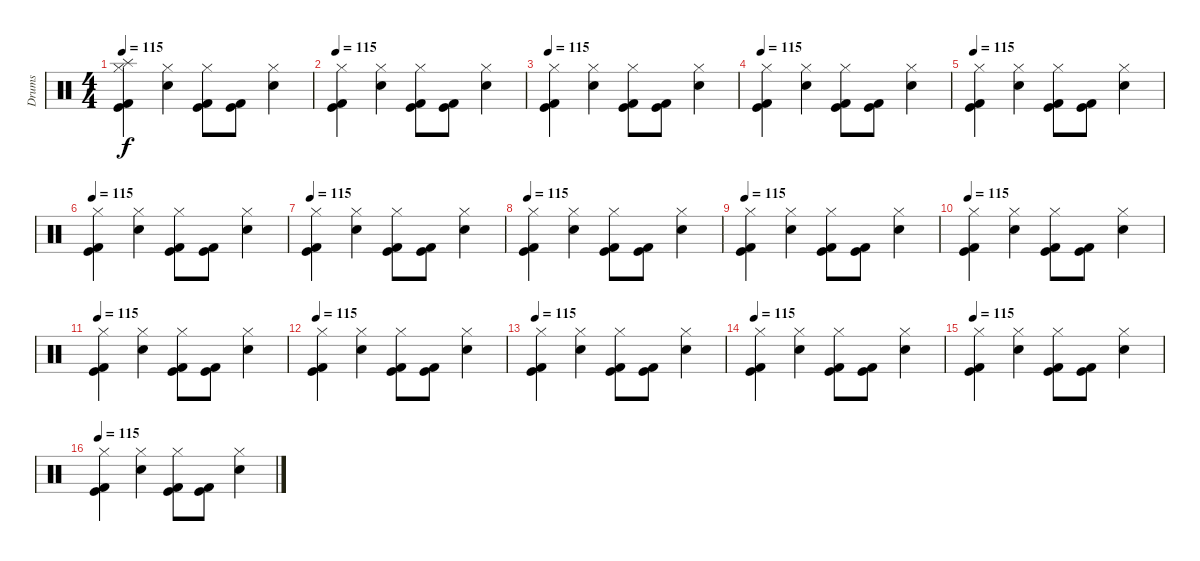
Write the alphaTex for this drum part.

\track ("Drums" "Drums") {instrument percussion}
\staff {score}
\articulation defaults
\ts (4 4)
\tempo 115
\clef neutral
\ks c
("Splash (hit)" "Kick (hit) 2" "Kick (hit)" "Hi-Hat (closed)").4{dy f} ("Hi-Hat (closed)" "Electric Snare (hit)").4 ("Kick (hit) 2" "Kick (hit)" "Hi-Hat (closed)").8 ("Kick (hit) 2" "Kick (hit)").8 ("Electric Snare (hit)" "Hi-Hat (closed)").4 |
\tempo 115
("Kick (hit) 2" "Kick (hit)" "Hi-Hat (closed)").4 ("Hi-Hat (closed)" "Electric Snare (hit)").4 ("Kick (hit) 2" "Kick (hit)" "Hi-Hat (closed)").8 ("Kick (hit) 2" "Kick (hit)").8 ("Electric Snare (hit)" "Hi-Hat (closed)").4 |
\tempo 115
("Kick (hit) 2" "Kick (hit)" "Hi-Hat (closed)").4 ("Hi-Hat (closed)" "Electric Snare (hit)").4 ("Kick (hit) 2" "Kick (hit)" "Hi-Hat (closed)").8 ("Kick (hit) 2" "Kick (hit)").8 ("Electric Snare (hit)" "Hi-Hat (closed)").4 |
\tempo 115
("Kick (hit) 2" "Kick (hit)" "Hi-Hat (closed)").4 ("Hi-Hat (closed)" "Electric Snare (hit)").4 ("Kick (hit) 2" "Kick (hit)" "Hi-Hat (closed)").8 ("Kick (hit) 2" "Kick (hit)").8 ("Electric Snare (hit)" "Hi-Hat (closed)").4 |
\tempo 115
("Kick (hit) 2" "Kick (hit)" "Hi-Hat (closed)").4 ("Hi-Hat (closed)" "Electric Snare (hit)").4 ("Kick (hit) 2" "Kick (hit)" "Hi-Hat (closed)").8 ("Kick (hit) 2" "Kick (hit)").8 ("Electric Snare (hit)" "Hi-Hat (closed)").4 |
\tempo 115
("Kick (hit) 2" "Kick (hit)" "Hi-Hat (closed)").4 ("Hi-Hat (closed)" "Electric Snare (hit)").4 ("Kick (hit) 2" "Kick (hit)" "Hi-Hat (closed)").8 ("Kick (hit) 2" "Kick (hit)").8 ("Electric Snare (hit)" "Hi-Hat (closed)").4 |
\tempo 115
("Kick (hit) 2" "Kick (hit)" "Hi-Hat (closed)").4 ("Hi-Hat (closed)" "Electric Snare (hit)").4 ("Kick (hit) 2" "Kick (hit)" "Hi-Hat (closed)").8 ("Kick (hit) 2" "Kick (hit)").8 ("Electric Snare (hit)" "Hi-Hat (closed)").4 |
\tempo 115
("Kick (hit) 2" "Kick (hit)" "Hi-Hat (closed)").4 ("Hi-Hat (closed)" "Electric Snare (hit)").4 ("Kick (hit) 2" "Kick (hit)" "Hi-Hat (closed)").8 ("Kick (hit) 2" "Kick (hit)").8 ("Electric Snare (hit)" "Hi-Hat (closed)").4 |
\tempo 115
("Kick (hit) 2" "Kick (hit)" "Hi-Hat (closed)").4 ("Hi-Hat (closed)" "Electric Snare (hit)").4 ("Kick (hit) 2" "Kick (hit)" "Hi-Hat (closed)").8 ("Kick (hit) 2" "Kick (hit)").8 ("Electric Snare (hit)" "Hi-Hat (closed)").4 |
\tempo 115
("Kick (hit) 2" "Kick (hit)" "Hi-Hat (closed)").4 ("Hi-Hat (closed)" "Electric Snare (hit)").4 ("Kick (hit) 2" "Kick (hit)" "Hi-Hat (closed)").8 ("Kick (hit) 2" "Kick (hit)").8 ("Electric Snare (hit)" "Hi-Hat (closed)").4 |
\tempo 115
("Kick (hit) 2" "Kick (hit)" "Hi-Hat (closed)").4 ("Hi-Hat (closed)" "Electric Snare (hit)").4 ("Kick (hit) 2" "Kick (hit)" "Hi-Hat (closed)").8 ("Kick (hit) 2" "Kick (hit)").8 ("Electric Snare (hit)" "Hi-Hat (closed)").4 |
\tempo 115
("Kick (hit) 2" "Kick (hit)" "Hi-Hat (closed)").4 ("Hi-Hat (closed)" "Electric Snare (hit)").4 ("Kick (hit) 2" "Kick (hit)" "Hi-Hat (closed)").8 ("Kick (hit) 2" "Kick (hit)").8 ("Electric Snare (hit)" "Hi-Hat (closed)").4 |
\tempo 115
("Kick (hit) 2" "Kick (hit)" "Hi-Hat (closed)").4 ("Hi-Hat (closed)" "Electric Snare (hit)").4 ("Kick (hit) 2" "Kick (hit)" "Hi-Hat (closed)").8 ("Kick (hit) 2" "Kick (hit)").8 ("Electric Snare (hit)" "Hi-Hat (closed)").4 |
\tempo 115
("Kick (hit) 2" "Kick (hit)" "Hi-Hat (closed)").4 ("Hi-Hat (closed)" "Electric Snare (hit)").4 ("Kick (hit) 2" "Kick (hit)" "Hi-Hat (closed)").8 ("Kick (hit) 2" "Kick (hit)").8 ("Electric Snare (hit)" "Hi-Hat (closed)").4 |
\tempo 115
("Kick (hit) 2" "Kick (hit)" "Hi-Hat (closed)").4 ("Hi-Hat (closed)" "Electric Snare (hit)").4 ("Kick (hit) 2" "Kick (hit)" "Hi-Hat (closed)").8 ("Kick (hit) 2" "Kick (hit)").8 ("Electric Snare (hit)" "Hi-Hat (closed)").4 |
\tempo 115
("Kick (hit) 2" "Kick (hit)" "Hi-Hat (closed)").4 ("Hi-Hat (closed)" "Electric Snare (hit)").4 ("Kick (hit) 2" "Kick (hit)" "Hi-Hat (closed)").8 ("Kick (hit) 2" "Kick (hit)").8 ("Electric Snare (hit)" "Hi-Hat (closed)").4
